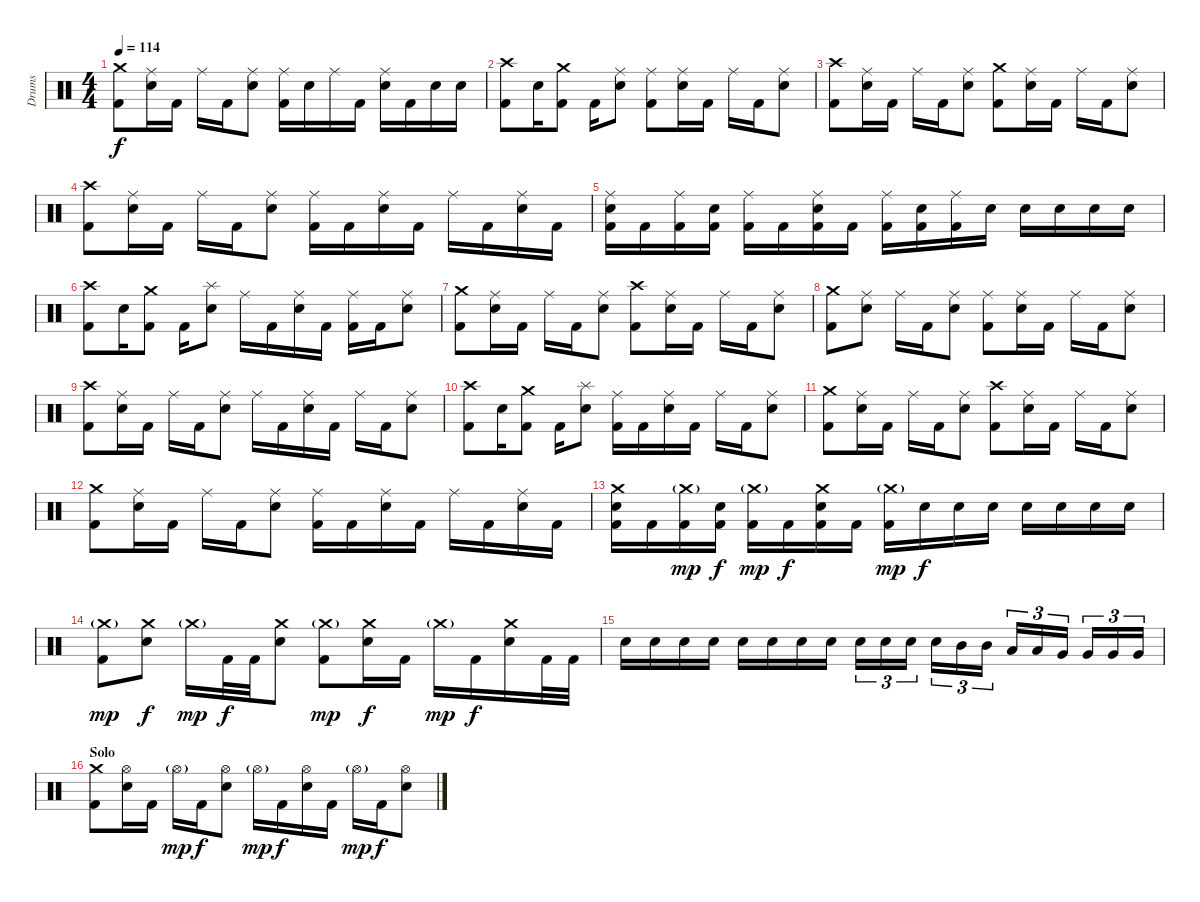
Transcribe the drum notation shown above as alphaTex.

\track ("Drums" "Drums") {instrument percussion}
\staff {score}
\articulation defaults
\ts (4 4)
\tempo 114
\clef neutral
\ks c
("Crash medium (hit)" "Kick (hit) 2").8{dy f} ("Ride (middle)" "Snare (hit) 2").16 "Kick (hit) 2".16 "Ride (middle)".16 "Kick (hit) 2".16 ("Ride (middle)" "Snare (hit) 2").8 ("Ride (middle)" "Kick (hit) 2").16 "Snare (hit) 2".16 "Ride (middle)".16 "Kick (hit) 2".16 ("Ride (middle)" "Snare (hit) 2").16 "Kick (hit) 2".16 "Snare (hit) 2".16 "Snare (hit) 2".16 |
("Crash high (hit)" "Kick (hit) 2").8 "Snare (hit) 2".16 ("Crash medium (hit)" "Kick (hit) 2").8 "Kick (hit) 2".16 ("Ride (middle)" "Snare (hit) 2").8 ("Ride (middle)" "Kick (hit) 2").8 ("Ride (middle)" "Snare (hit) 2").16 "Kick (hit) 2".16 "Ride (middle)".16 "Kick (hit) 2".16 ("Ride (middle)" "Snare (hit) 2").8 |
("Crash high (hit)" "Kick (hit) 2").8 ("Ride (middle)" "Snare (hit) 2").16 "Kick (hit) 2".16 "Ride (middle)".16 "Kick (hit) 2".16 ("Ride (middle)" "Snare (hit) 2").8 ("Crash medium (hit)" "Kick (hit) 2").8 ("Ride (middle)" "Snare (hit) 2").16 "Kick (hit) 2".16 "Ride (middle)".16 "Kick (hit) 2".16 ("Ride (middle)" "Snare (hit) 2").8 |
("Crash high (hit)" "Kick (hit) 2").8 ("Ride (middle)" "Snare (hit) 2").16 "Kick (hit) 2".16 "Ride (middle)".16 "Kick (hit) 2".16 ("Ride (middle)" "Snare (hit) 2").8 ("Ride (middle)" "Kick (hit) 2").16 "Kick (hit) 2".16 ("Ride (middle)" "Snare (hit) 2").16 "Kick (hit) 2".16 "Ride (middle)".16 "Kick (hit) 2".16 ("Ride (middle)" "Snare (hit) 2").16 "Kick (hit) 2".16 |
("Ride (middle)" "Snare (hit) 2" "Kick (hit) 2").16 "Kick (hit) 2".16 ("Ride (middle)" "Kick (hit) 2").16 ("Snare (hit) 2" "Kick (hit) 2").16 ("Ride (middle)" "Kick (hit) 2").16 "Kick (hit) 2".16 ("Ride (middle)" "Snare (hit) 2" "Kick (hit) 2").16 "Kick (hit) 2".16 ("Ride (middle)" "Kick (hit) 2").16 ("Snare (hit) 2" "Kick (hit) 2").16 ("Ride (middle)" "Kick (hit) 2").16 "Snare (hit) 2".16 "Snare (hit) 2".16 "Snare (hit) 2".16 "Snare (hit) 2".16 "Snare (hit) 2".16 |
("Crash high (hit)" "Kick (hit) 2").8 "Snare (hit) 2".16 ("Crash medium (hit)" "Kick (hit) 2").8 "Kick (hit) 2".16 ("Splash (hit)" "Snare (hit) 2").8 "Ride (middle)".16 "Kick (hit) 2".16 ("Ride (middle)" "Snare (hit) 2").16 "Kick (hit) 2".16 ("Ride (middle)" "Kick (hit) 2").16 "Kick (hit) 2".16 ("Ride (middle)" "Snare (hit) 2").8 |
("Crash medium (hit)" "Kick (hit) 2").8 ("Ride (middle)" "Snare (hit) 2").16 "Kick (hit) 2".16 "Ride (middle)".16 "Kick (hit) 2".16 ("Ride (middle)" "Snare (hit) 2").8 ("Crash high (hit)" "Kick (hit) 2").8 ("Ride (middle)" "Snare (hit) 2").16 "Kick (hit) 2".16 "Ride (middle)".16 "Kick (hit) 2".16 ("Ride (middle)" "Snare (hit) 2").8 |
("Crash medium (hit)" "Kick (hit) 2").8 ("Ride (middle)" "Snare (hit) 2").8 "Ride (middle)".16 "Kick (hit) 2".16 ("Ride (middle)" "Snare (hit) 2").8 ("Ride (middle)" "Kick (hit) 2").8 ("Ride (middle)" "Snare (hit) 2").16 "Kick (hit) 2".16 "Ride (middle)".16 "Kick (hit) 2".16 ("Ride (middle)" "Snare (hit) 2").8 |
("Crash high (hit)" "Kick (hit) 2").8 ("Ride (middle)" "Snare (hit) 2").16 "Kick (hit) 2".16 "Ride (middle)".16 "Kick (hit) 2".16 ("Ride (middle)" "Snare (hit) 2").8 "Ride (middle)".16 "Kick (hit) 2".16 ("Ride (middle)" "Snare (hit) 2").16 "Kick (hit) 2".16 "Ride (middle)".16 "Kick (hit) 2".16 ("Ride (middle)" "Snare (hit) 2").8 |
("Crash high (hit)" "Kick (hit) 2").8 "Snare (hit) 2".16 ("Crash medium (hit)" "Kick (hit) 2").8 "Kick (hit) 2".16 ("Splash (hit)" "Snare (hit) 2").8 ("Ride (middle)" "Kick (hit) 2").16 "Kick (hit) 2".16 ("Ride (middle)" "Snare (hit) 2").16 "Kick (hit) 2".16 "Ride (middle)".16 "Kick (hit) 2".16 ("Ride (middle)" "Snare (hit) 2").8 |
("Crash medium (hit)" "Kick (hit) 2").8 ("Ride (middle)" "Snare (hit) 2").16 "Kick (hit) 2".16 "Ride (middle)".16 "Kick (hit) 2".16 ("Ride (middle)" "Snare (hit) 2").8 ("Crash high (hit)" "Kick (hit) 2").8 ("Ride (middle)" "Snare (hit) 2").16 "Kick (hit) 2".16 "Ride (middle)".16 "Kick (hit) 2".16 ("Ride (middle)" "Snare (hit) 2").8 |
("Crash medium (hit)" "Kick (hit) 2").8 ("Ride (middle)" "Snare (hit) 2").16 "Kick (hit) 2".16 "Ride (middle)".16 "Kick (hit) 2".16 ("Ride (middle)" "Snare (hit) 2").8 ("Ride (middle)" "Kick (hit) 2").16 "Kick (hit) 2".16 ("Ride (middle)" "Snare (hit) 2").16 "Kick (hit) 2".16 "Ride (middle)".16 "Kick (hit) 2".16 ("Ride (middle)" "Snare (hit) 2").16 "Kick (hit) 2".16 |
("Crash medium (hit)" "Snare (hit) 2" "Kick (hit) 2").16 "Kick (hit) 2".16 ("Crash medium (hit)"{g} "Kick (hit) 2").16{dy mp} ("Snare (hit) 2" "Kick (hit) 2").16{dy f} ("Crash medium (hit)"{g} "Kick (hit) 2").16{dy mp} "Kick (hit) 2".16{dy f} ("Crash medium (hit)" "Snare (hit) 2" "Kick (hit) 2").16 "Kick (hit) 2".16 ("Crash medium (hit)"{g} "Kick (hit) 2").16{dy mp} "Snare (hit) 2".16{dy f} "Snare (hit) 2".16 "Snare (hit) 2".16 "Snare (hit) 2".16 "Snare (hit) 2".16 "Snare (hit) 2".16 "Snare (hit) 2".16 |
("Crash medium (hit)"{g} "Kick (hit) 2").8{dy mp} ("Crash medium (hit)" "Snare (hit) 2").8{dy f} "Crash medium (hit)"{g}.16{dy mp} "Kick (hit) 2".32{dy f} "Kick (hit) 2".32 ("Crash medium (hit)" "Snare (hit) 2").8 ("Crash medium (hit)"{g} "Kick (hit) 2").8{dy mp} ("Crash medium (hit)" "Snare (hit) 2").16{dy f} "Kick (hit) 2".16 "Crash medium (hit)"{g}.16{dy mp} "Kick (hit) 2".16{dy f} ("Crash medium (hit)" "Snare (hit) 2").16 "Kick (hit) 2".32 "Kick (hit) 2".32 |
"Snare (hit) 2".16 "Snare (hit) 2".16 "Snare (hit) 2".16 "Snare (hit) 2".16 "Snare (hit) 2".16 "Snare (hit) 2".16 "Snare (hit) 2".16 "Snare (hit) 2".16 "Snare (hit) 2".16{tu (3 2)} "Snare (hit) 2".16{tu (3 2)} "Snare (hit) 2".16{tu (3 2)} "Snare (hit) 2".16{tu (3 2)} "Mid Tom (hit)".16{tu (3 2)} "Mid Tom (hit)".16{tu (3 2)} "Low Tom (hit)".16{tu (3 2)} "Low Tom (hit)".16{tu (3 2)} "Very Low Tom (hit)".16{tu (3 2)} "Very Low Tom (hit)".16{tu (3 2)} "Very Low Tom (hit)".16{tu (3 2)} "Very Low Tom (hit)".16{tu (3 2)} |
\section ("" "Solo")
("Crash medium (hit)" "Kick (hit) 2").8 ("Hi-Hat (open)" "Snare (hit) 2").16 "Kick (hit) 2".16 "Hi-Hat (open)"{g}.16{dy mp} "Kick (hit) 2".16{dy f} ("Hi-Hat (open)" "Snare (hit) 2").8 "Hi-Hat (open)"{g}.16{dy mp} "Kick (hit) 2".16{dy f} ("Hi-Hat (open)" "Snare (hit) 2").16 "Kick (hit) 2".16 "Hi-Hat (open)"{g}.16{dy mp} "Kick (hit) 2".16{dy f} ("Hi-Hat (open)" "Snare (hit) 2").8
